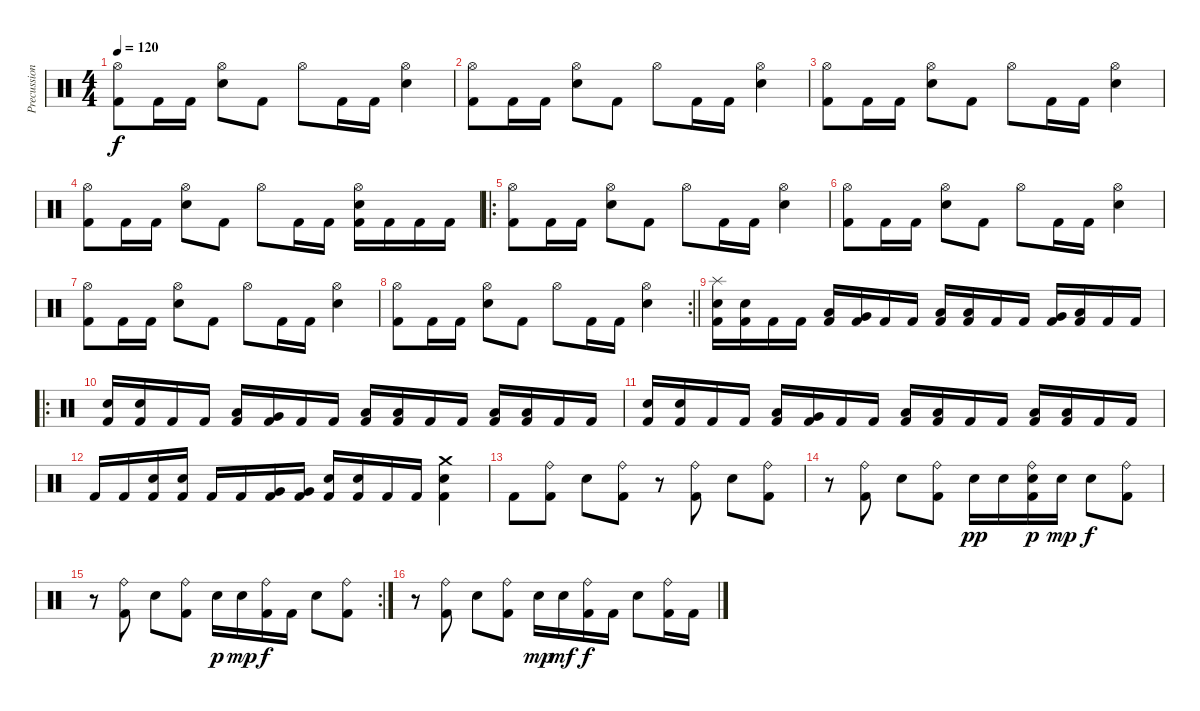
\track ("Precussion" "Precussion") {instrument percussion}
\staff {score}
\articulation defaults
\ts (4 4)
\tempo 120
\clef neutral
\ks c
("Hi-Hat (open)" "Kick (hit) 2").8{dy f} "Kick (hit) 2".16 "Kick (hit) 2".16 ("Hi-Hat (open)" "Electric Snare (hit)").8 "Kick (hit) 2".8 "Hi-Hat (open)".8 "Kick (hit) 2".16 "Kick (hit) 2".16 ("Hi-Hat (open)" "Electric Snare (hit)").4 |
("Hi-Hat (open)" "Kick (hit) 2").8 "Kick (hit) 2".16 "Kick (hit) 2".16 ("Hi-Hat (open)" "Electric Snare (hit)").8 "Kick (hit) 2".8 "Hi-Hat (open)".8 "Kick (hit) 2".16 "Kick (hit) 2".16 ("Hi-Hat (open)" "Electric Snare (hit)").4 |
("Hi-Hat (open)" "Kick (hit) 2").8 "Kick (hit) 2".16 "Kick (hit) 2".16 ("Hi-Hat (open)" "Electric Snare (hit)").8 "Kick (hit) 2".8 "Hi-Hat (open)".8 "Kick (hit) 2".16 "Kick (hit) 2".16 ("Hi-Hat (open)" "Electric Snare (hit)").4 |
("Hi-Hat (open)" "Kick (hit) 2").8 "Kick (hit) 2".16 "Kick (hit) 2".16 ("Hi-Hat (open)" "Electric Snare (hit)").8 "Kick (hit) 2".8 "Hi-Hat (open)".8 "Kick (hit) 2".16 "Kick (hit) 2".16 ("Hi-Hat (open)" "Electric Snare (hit)" "Kick (hit) 2").16 "Kick (hit) 2".16 "Kick (hit) 2".16 "Kick (hit) 2".16 |
\ro
("Hi-Hat (open)" "Kick (hit) 2").8 "Kick (hit) 2".16 "Kick (hit) 2".16 ("Hi-Hat (open)" "Electric Snare (hit)").8 "Kick (hit) 2".8 "Hi-Hat (open)".8 "Kick (hit) 2".16 "Kick (hit) 2".16 ("Hi-Hat (open)" "Electric Snare (hit)").4 |
("Hi-Hat (open)" "Kick (hit) 2").8 "Kick (hit) 2".16 "Kick (hit) 2".16 ("Hi-Hat (open)" "Electric Snare (hit)").8 "Kick (hit) 2".8 "Hi-Hat (open)".8 "Kick (hit) 2".16 "Kick (hit) 2".16 ("Hi-Hat (open)" "Electric Snare (hit)").4 |
("Hi-Hat (open)" "Kick (hit) 2").8 "Kick (hit) 2".16 "Kick (hit) 2".16 ("Hi-Hat (open)" "Electric Snare (hit)").8 "Kick (hit) 2".8 "Hi-Hat (open)".8 "Kick (hit) 2".16 "Kick (hit) 2".16 ("Hi-Hat (open)" "Electric Snare (hit)").4 |
\rc 2
\barLineRight lightlight
("Hi-Hat (open)" "Kick (hit) 2").8 "Kick (hit) 2".16 "Kick (hit) 2".16 ("Hi-Hat (open)" "Electric Snare (hit)").8 "Kick (hit) 2".8 "Hi-Hat (open)".8 "Kick (hit) 2".16 "Kick (hit) 2".16 ("Hi-Hat (open)" "Electric Snare (hit)").4 |
("Splash (hit)" "Electric Snare (hit)" "Kick (hit) 2").16 ("Electric Snare (hit)" "Kick (hit) 2").16 "Kick (hit) 2".16 "Kick (hit) 2".16 ("Low Tom (hit)" "Kick (hit) 2").16 ("Very Low Tom (hit)" "Kick (hit) 2").16 "Kick (hit) 2".16 "Kick (hit) 2".16 ("Low Tom (hit)" "Kick (hit) 2").16 ("Low Tom (hit)" "Kick (hit) 2").16 "Kick (hit) 2".16 "Kick (hit) 2".16 ("Very Low Tom (hit)" "Kick (hit) 2").16 ("Low Floor Tom (hit)" "Kick (hit) 2").16 "Kick (hit) 2".16 "Kick (hit) 2".16 |
\ro
("Electric Snare (hit)" "Kick (hit) 2").16 ("Electric Snare (hit)" "Kick (hit) 2").16 "Kick (hit) 2".16 "Kick (hit) 2".16 ("Low Tom (hit)" "Kick (hit) 2").16 ("Very Low Tom (hit)" "Kick (hit) 2").16 "Kick (hit) 2".16 "Kick (hit) 2".16 ("Low Tom (hit)" "Kick (hit) 2").16 ("Low Tom (hit)" "Kick (hit) 2").16 "Kick (hit) 2".16 "Kick (hit) 2".16 ("Low Floor Tom (hit)" "Kick (hit) 2").16 ("Low Floor Tom (hit)" "Kick (hit) 2").16 "Kick (hit) 2".16 "Kick (hit) 2".16 |
("Electric Snare (hit)" "Kick (hit) 2").16 ("Electric Snare (hit)" "Kick (hit) 2").16 "Kick (hit) 2".16 "Kick (hit) 2".16 ("Low Tom (hit)" "Kick (hit) 2").16 ("Very Low Tom (hit)" "Kick (hit) 2").16 "Kick (hit) 2".16 "Kick (hit) 2".16 ("Low Tom (hit)" "Kick (hit) 2").16 ("Low Tom (hit)" "Kick (hit) 2").16 "Kick (hit) 2".16 "Kick (hit) 2".16 ("Low Floor Tom (hit)" "Kick (hit) 2").16 ("Low Floor Tom (hit)" "Kick (hit) 2").16 "Kick (hit) 2".16 "Kick (hit) 2".16 |
"Kick (hit) 2".16 "Kick (hit) 2".16 ("Electric Snare (hit)" "Kick (hit) 2").16 ("Electric Snare (hit)" "Kick (hit) 2").16 "Kick (hit) 2".16 "Kick (hit) 2".16 ("Very Low Tom (hit)" "Kick (hit) 2").16 ("Very Low Tom (hit)" "Kick (hit) 2").16 ("Electric Snare (hit)" "Kick (hit) 2").16 ("Electric Snare (hit)" "Kick (hit) 2").16 "Kick (hit) 2".16 "Kick (hit) 2".16 ("Crash medium (hit)" "Electric Snare (hit)" "Kick (hit) 2").4 |
"Kick (hit) 2".8 ("Ride (bell)" "Kick (hit) 2").8 "Electric Snare (hit)".8 ("Ride (bell)" "Kick (hit) 2").8 r.8 ("Ride (bell)" "Kick (hit) 2").8 "Electric Snare (hit)".8 ("Ride (bell)" "Kick (hit) 2").8 |
r.8 ("Ride (bell)" "Kick (hit) 2").8 "Electric Snare (hit)".8 ("Ride (bell)" "Kick (hit) 2").8 "Electric Snare (hit)".16{dy pp} "Electric Snare (hit)".16 ("Ride (bell)" "Electric Snare (hit)" "Kick (hit) 2").16{dy p} "Electric Snare (hit)".16{dy mp} "Electric Snare (hit)".8{dy f} ("Ride (bell)" "Kick (hit) 2").8 |
\rc 2
r.8 ("Ride (bell)" "Kick (hit) 2").8 "Electric Snare (hit)".8 ("Ride (bell)" "Kick (hit) 2").8 "Electric Snare (hit)".16{dy p} "Electric Snare (hit)".16{dy mp} ("Ride (bell)" "Kick (hit) 2").16{dy f} "Kick (hit) 2".16 "Electric Snare (hit)".8 ("Ride (bell)" "Kick (hit) 2").8 |
r.8 ("Ride (bell)" "Kick (hit) 2").8 "Electric Snare (hit)".8 ("Ride (bell)" "Kick (hit) 2").8 "Electric Snare (hit)".16{dy mp} "Electric Snare (hit)".16{dy mf} ("Ride (bell)" "Kick (hit) 2").16{dy f} "Kick (hit) 2".16 "Electric Snare (hit)".8 ("Ride (bell)" "Kick (hit) 2").16 "Kick (hit) 2".16
